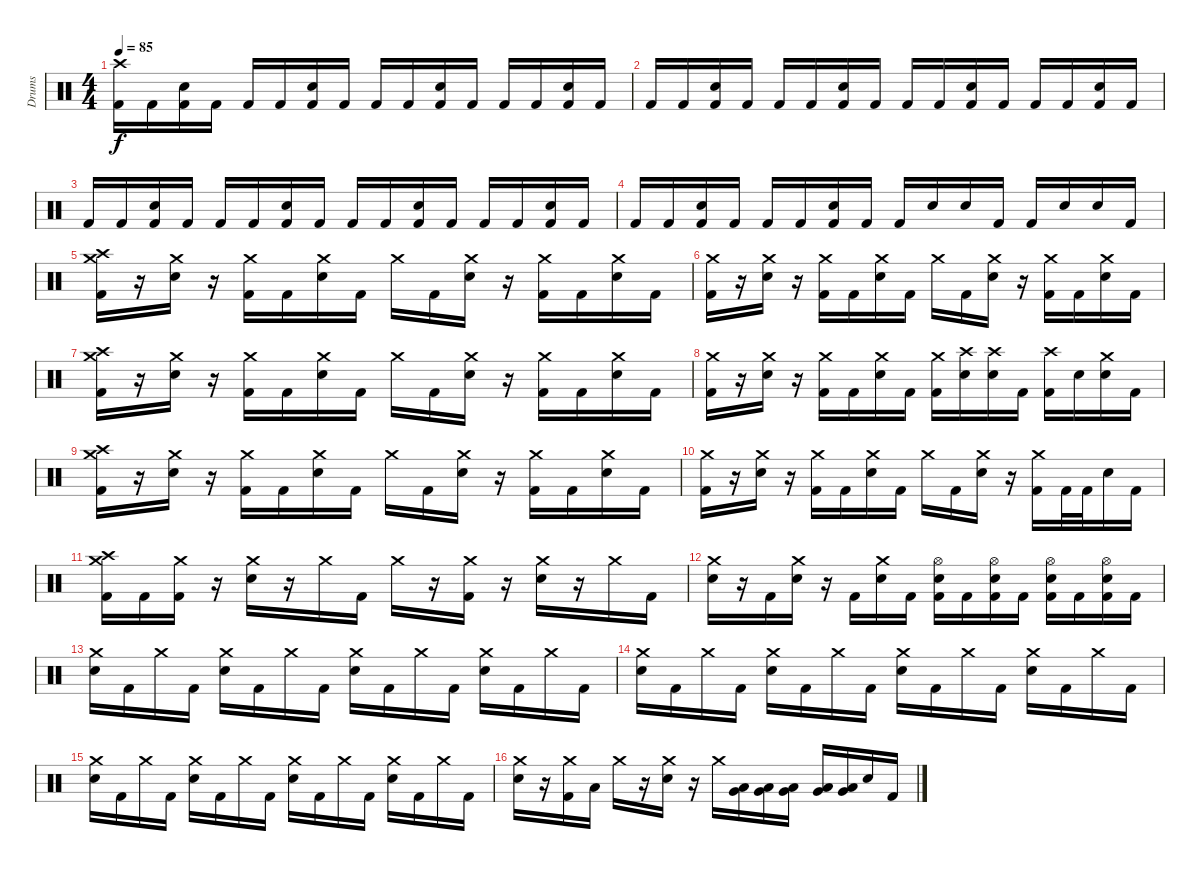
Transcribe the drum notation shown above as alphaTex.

\track ("Drums" "Drums") {instrument percussion}
\staff {score}
\articulation defaults
\ts (4 4)
\tempo 85
\clef neutral
\ks c
("Crash high (hit)" "Kick (hit) 2").16{dy f} "Kick (hit) 2".16 ("Electric Snare (hit)" "Kick (hit) 2").16 "Kick (hit) 2".16 "Kick (hit) 2".16 "Kick (hit) 2".16 ("Electric Snare (hit)" "Kick (hit) 2").16 "Kick (hit) 2".16 "Kick (hit) 2".16 "Kick (hit) 2".16 ("Electric Snare (hit)" "Kick (hit) 2").16 "Kick (hit) 2".16 "Kick (hit) 2".16 "Kick (hit) 2".16 ("Electric Snare (hit)" "Kick (hit) 2").16 "Kick (hit) 2".16 |
"Kick (hit) 2".16 "Kick (hit) 2".16 ("Electric Snare (hit)" "Kick (hit) 2").16 "Kick (hit) 2".16 "Kick (hit) 2".16 "Kick (hit) 2".16 ("Electric Snare (hit)" "Kick (hit) 2").16 "Kick (hit) 2".16 "Kick (hit) 2".16 "Kick (hit) 2".16 ("Electric Snare (hit)" "Kick (hit) 2").16 "Kick (hit) 2".16 "Kick (hit) 2".16 "Kick (hit) 2".16 ("Electric Snare (hit)" "Kick (hit) 2").16 "Kick (hit) 2".16 |
"Kick (hit) 2".16 "Kick (hit) 2".16 ("Electric Snare (hit)" "Kick (hit) 2").16 "Kick (hit) 2".16 "Kick (hit) 2".16 "Kick (hit) 2".16 ("Electric Snare (hit)" "Kick (hit) 2").16 "Kick (hit) 2".16 "Kick (hit) 2".16 "Kick (hit) 2".16 ("Electric Snare (hit)" "Kick (hit) 2").16 "Kick (hit) 2".16 "Kick (hit) 2".16 "Kick (hit) 2".16 ("Electric Snare (hit)" "Kick (hit) 2").16 "Kick (hit) 2".16 |
"Kick (hit) 2".16 "Kick (hit) 2".16 ("Electric Snare (hit)" "Kick (hit) 2").16 "Kick (hit) 2".16 "Kick (hit) 2".16 "Kick (hit) 2".16 ("Electric Snare (hit)" "Kick (hit) 2").16 "Kick (hit) 2".16 "Kick (hit) 2".16 "Electric Snare (hit)".16 "Electric Snare (hit)".16 "Kick (hit) 2".16 "Kick (hit) 2".16 "Electric Snare (hit)".16 "Electric Snare (hit)".16 "Kick (hit) 2".16 |
("Crash medium (hit)" "Crash high (hit)" "Kick (hit) 2").16 r.16 ("Crash medium (hit)" "Electric Snare (hit)").16 r.16 ("Crash medium (hit)" "Kick (hit) 2").16 "Kick (hit) 2".16 ("Crash medium (hit)" "Electric Snare (hit)").16 "Kick (hit) 2".16 "Crash medium (hit)".16 "Kick (hit) 2".16 ("Crash medium (hit)" "Electric Snare (hit)").16 r.16 ("Crash medium (hit)" "Kick (hit) 2").16 "Kick (hit) 2".16 ("Crash medium (hit)" "Electric Snare (hit)").16 "Kick (hit) 2".16 |
("Crash medium (hit)" "Kick (hit) 2").16 r.16 ("Crash medium (hit)" "Electric Snare (hit)").16 r.16 ("Crash medium (hit)" "Kick (hit) 2").16 "Kick (hit) 2".16 ("Crash medium (hit)" "Electric Snare (hit)").16 "Kick (hit) 2".16 "Crash medium (hit)".16 "Kick (hit) 2".16 ("Crash medium (hit)" "Electric Snare (hit)").16 r.16 ("Crash medium (hit)" "Kick (hit) 2").16 "Kick (hit) 2".16 ("Crash medium (hit)" "Electric Snare (hit)").16 "Kick (hit) 2".16 |
("Crash medium (hit)" "Crash high (hit)" "Kick (hit) 2").16 r.16 ("Crash medium (hit)" "Electric Snare (hit)").16 r.16 ("Crash medium (hit)" "Kick (hit) 2").16 "Kick (hit) 2".16 ("Crash medium (hit)" "Electric Snare (hit)").16 "Kick (hit) 2".16 "Crash medium (hit)".16 "Kick (hit) 2".16 ("Crash medium (hit)" "Electric Snare (hit)").16 r.16 ("Crash medium (hit)" "Kick (hit) 2").16 "Kick (hit) 2".16 ("Crash medium (hit)" "Electric Snare (hit)").16 "Kick (hit) 2".16 |
("Crash medium (hit)" "Kick (hit) 2").16 r.16 ("Crash medium (hit)" "Electric Snare (hit)").16 r.16 ("Crash medium (hit)" "Kick (hit) 2").16 "Kick (hit) 2".16 ("Crash medium (hit)" "Electric Snare (hit)").16 "Kick (hit) 2".16 ("Crash medium (hit)" "Kick (hit) 2").16 ("Crash high (hit)" "Electric Snare (hit)").16 ("Crash high (hit)" "Electric Snare (hit)").16 "Kick (hit) 2".16 ("Crash high (hit)" "Kick (hit) 2").16 "Electric Snare (hit)".16 ("Crash medium (hit)" "Electric Snare (hit)").16 "Kick (hit) 2".16 |
("Crash medium (hit)" "Crash high (hit)" "Kick (hit) 2").16 r.16 ("Crash medium (hit)" "Electric Snare (hit)").16 r.16 ("Crash medium (hit)" "Kick (hit) 2").16 "Kick (hit) 2".16 ("Crash medium (hit)" "Electric Snare (hit)").16 "Kick (hit) 2".16 "Crash medium (hit)".16 "Kick (hit) 2".16 ("Crash medium (hit)" "Electric Snare (hit)").16 r.16 ("Crash medium (hit)" "Kick (hit) 2").16 "Kick (hit) 2".16 ("Crash medium (hit)" "Electric Snare (hit)").16 "Kick (hit) 2".16 |
("Crash medium (hit)" "Kick (hit) 2").16 r.16 ("Crash medium (hit)" "Electric Snare (hit)").16 r.16 ("Crash medium (hit)" "Kick (hit) 2").16 "Kick (hit) 2".16 ("Crash medium (hit)" "Electric Snare (hit)").16 "Kick (hit) 2".16 "Crash medium (hit)".16 "Kick (hit) 2".16 ("Crash medium (hit)" "Electric Snare (hit)").16 r.16 ("Crash medium (hit)" "Kick (hit) 2").16 "Kick (hit) 2".32 "Kick (hit) 2".32 "Electric Snare (hit)".16 "Kick (hit) 2".16 |
("Crash medium (hit)" "Crash high (hit)" "Kick (hit) 2").16 "Kick (hit) 2".16 ("Crash medium (hit)" "Kick (hit) 2").16 r.16 ("Crash medium (hit)" "Electric Snare (hit)").16 r.16 "Crash medium (hit)".16 "Kick (hit) 2".16 "Crash medium (hit)".16 r.16 ("Crash medium (hit)" "Kick (hit) 2").16 r.16 ("Crash medium (hit)" "Electric Snare (hit)").16 r.16 "Crash medium (hit)".16 "Kick (hit) 2".16 |
("Crash medium (hit)" "Electric Snare (hit)").16 r.16 "Kick (hit) 2".16 ("Crash medium (hit)" "Electric Snare (hit)").16 r.16 "Kick (hit) 2".16 ("Crash medium (hit)" "Electric Snare (hit)").16 "Kick (hit) 2".16 ("Hi-Hat (open)" "Electric Snare (hit)" "Kick (hit) 2").16 "Kick (hit) 2".16 ("Hi-Hat (open)" "Electric Snare (hit)" "Kick (hit) 2").16 "Kick (hit) 2".16 ("Hi-Hat (open)" "Electric Snare (hit)" "Kick (hit) 2").16 "Kick (hit) 2".16 ("Hi-Hat (open)" "Electric Snare (hit)" "Kick (hit) 2").16 "Kick (hit) 2".16 |
("Crash medium (hit)" "Electric Snare (hit)").16 "Kick (hit) 2".16 "Crash medium (hit)".16 "Kick (hit) 2".16 ("Crash medium (hit)" "Electric Snare (hit)").16 "Kick (hit) 2".16 "Crash medium (hit)".16 "Kick (hit) 2".16 ("Crash medium (hit)" "Electric Snare (hit)").16 "Kick (hit) 2".16 "Crash medium (hit)".16 "Kick (hit) 2".16 ("Crash medium (hit)" "Electric Snare (hit)").16 "Kick (hit) 2".16 "Crash medium (hit)".16 "Kick (hit) 2".16 |
("Crash medium (hit)" "Electric Snare (hit)").16 "Kick (hit) 2".16 "Crash medium (hit)".16 "Kick (hit) 2".16 ("Crash medium (hit)" "Electric Snare (hit)").16 "Kick (hit) 2".16 "Crash medium (hit)".16 "Kick (hit) 2".16 ("Crash medium (hit)" "Electric Snare (hit)").16 "Kick (hit) 2".16 "Crash medium (hit)".16 "Kick (hit) 2".16 ("Crash medium (hit)" "Electric Snare (hit)").16 "Kick (hit) 2".16 "Crash medium (hit)".16 "Kick (hit) 2".16 |
("Crash medium (hit)" "Electric Snare (hit)").16 "Kick (hit) 2".16 "Crash medium (hit)".16 "Kick (hit) 2".16 ("Crash medium (hit)" "Electric Snare (hit)").16 "Kick (hit) 2".16 "Crash medium (hit)".16 "Kick (hit) 2".16 ("Crash medium (hit)" "Electric Snare (hit)").16 "Kick (hit) 2".16 "Crash medium (hit)".16 "Kick (hit) 2".16 ("Crash medium (hit)" "Electric Snare (hit)").16 "Kick (hit) 2".16 "Crash medium (hit)".16 "Kick (hit) 2".16 |
("Crash medium (hit)" "Electric Snare (hit)").16 r.16 ("Crash medium (hit)" "Kick (hit) 2").16 "Low Tom (hit)".16 "Crash medium (hit)".16 r.16 ("Crash medium (hit)" "Electric Snare (hit)").16 r.16 "Crash medium (hit)".16 ("Low Tom (hit)" "Very Low Tom (hit)").16 ("Low Tom (hit)" "Very Low Tom (hit)").16 ("Low Tom (hit)" "Very Low Tom (hit)").16 ("Low Tom (hit)" "Very Low Tom (hit)").16 ("Low Tom (hit)" "Very Low Tom (hit)").16 "Electric Snare (hit)".16 "Kick (hit) 2".16
